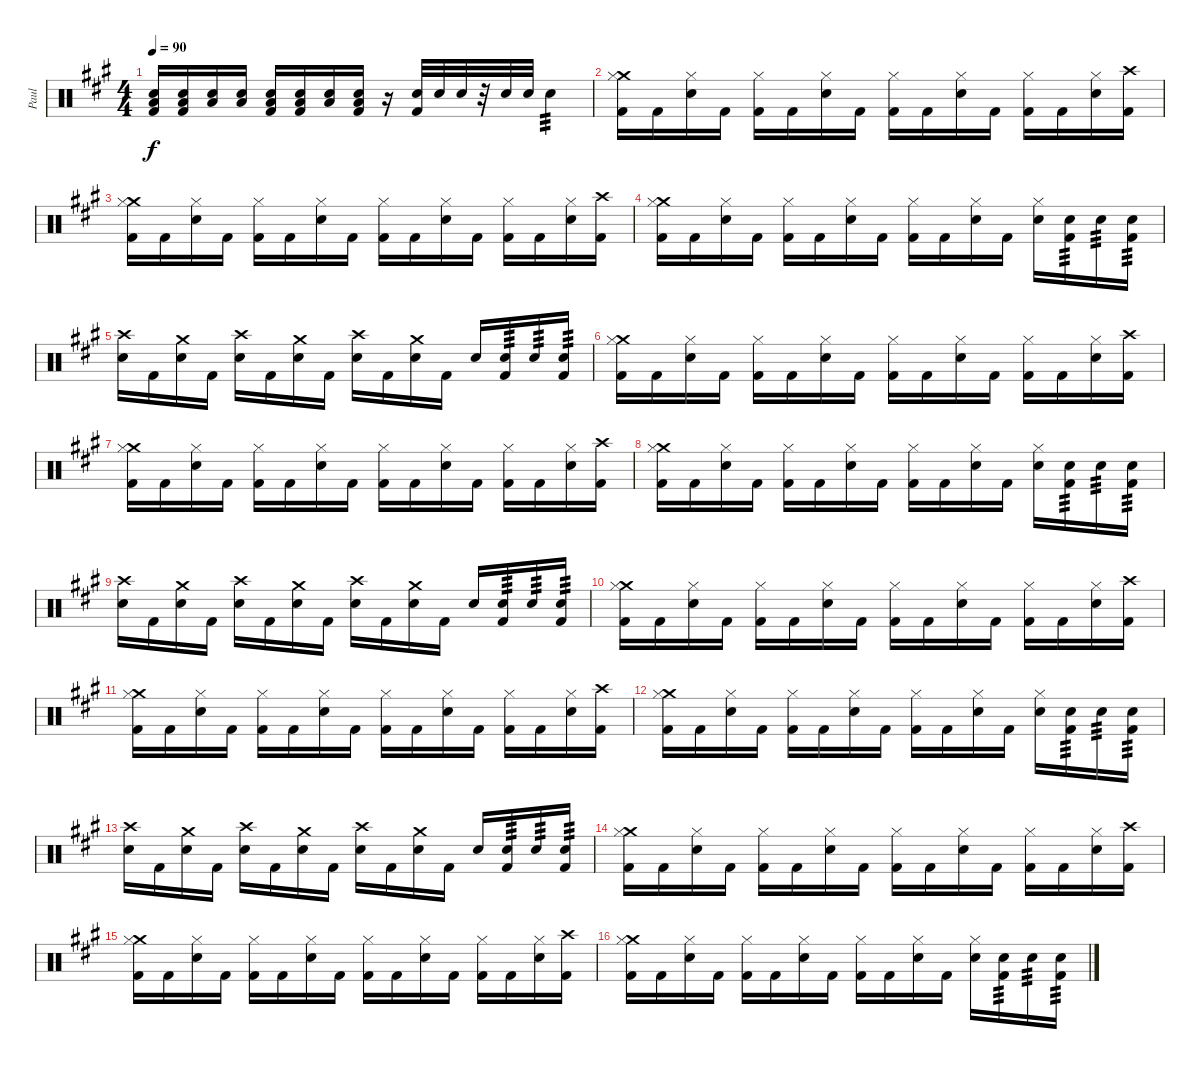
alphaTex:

\track ("Paul" "Paul") {instrument percussion}
\staff {score}
\articulation defaults
\ts (4 4)
\tempo 90
\clef neutral
\ks a
("Snare (hit) 2" "Low Floor Tom (hit)" "Kick (hit) 2").16{dy f} ("Snare (hit) 2" "Low Floor Tom (hit)" "Kick (hit) 2").16 ("Snare (hit) 2" "Low Floor Tom (hit)").16 ("Snare (hit) 2" "Low Floor Tom (hit)").16 ("Snare (hit) 2" "Low Floor Tom (hit)" "Kick (hit) 2").16 ("Snare (hit) 2" "Low Floor Tom (hit)" "Kick (hit) 2").16 ("Snare (hit) 2" "Low Floor Tom (hit)").16 ("Snare (hit) 2" "Low Floor Tom (hit)" "Kick (hit) 2").16 r.16 ("Snare (hit) 2" "Kick (hit) 2").32 "Snare (hit) 2".32 "Snare (hit) 2".32 r.32 "Snare (hit) 2".32 "Snare (hit) 2".32 "Snare (hit) 2".4{tp 3} |
("Crash medium (hit)" "Hi-Hat (closed)" "Kick (hit) 2").16 "Kick (hit) 2".16 ("Hi-Hat (closed)" "Snare (hit) 2").16 "Kick (hit) 2".16 ("Hi-Hat (closed)" "Kick (hit) 2").16 "Kick (hit) 2".16 ("Hi-Hat (closed)" "Snare (hit) 2").16 "Kick (hit) 2".16 ("Hi-Hat (closed)" "Kick (hit) 2").16 "Kick (hit) 2".16 ("Hi-Hat (closed)" "Snare (hit) 2").16 "Kick (hit) 2".16 ("Hi-Hat (closed)" "Kick (hit) 2").16 "Kick (hit) 2".16 ("Hi-Hat (closed)" "Snare (hit) 2").16 ("Crash high (hit)" "Kick (hit) 2").16 |
("Crash medium (hit)" "Hi-Hat (closed)" "Kick (hit) 2").16 "Kick (hit) 2".16 ("Hi-Hat (closed)" "Snare (hit) 2").16 "Kick (hit) 2".16 ("Hi-Hat (closed)" "Kick (hit) 2").16 "Kick (hit) 2".16 ("Hi-Hat (closed)" "Snare (hit) 2").16 "Kick (hit) 2".16 ("Hi-Hat (closed)" "Kick (hit) 2").16 "Kick (hit) 2".16 ("Hi-Hat (closed)" "Snare (hit) 2").16 "Kick (hit) 2".16 ("Hi-Hat (closed)" "Kick (hit) 2").16 "Kick (hit) 2".16 ("Hi-Hat (closed)" "Snare (hit) 2").16 ("Crash high (hit)" "Kick (hit) 2").16 |
("Crash medium (hit)" "Hi-Hat (closed)" "Kick (hit) 2").16 "Kick (hit) 2".16 ("Hi-Hat (closed)" "Snare (hit) 2").16 "Kick (hit) 2".16 ("Hi-Hat (closed)" "Kick (hit) 2").16 "Kick (hit) 2".16 ("Hi-Hat (closed)" "Snare (hit) 2").16 "Kick (hit) 2".16 ("Hi-Hat (closed)" "Kick (hit) 2").16 "Kick (hit) 2".16 ("Hi-Hat (closed)" "Snare (hit) 2").16 "Kick (hit) 2".16 ("Hi-Hat (closed)" "Snare (hit) 2").16 ("Snare (hit) 2" "Kick (hit) 2").16{tp 3} "Snare (hit) 2".16{tp 3} ("Snare (hit) 2" "Kick (hit) 2").16{tp 3} |
("Crash high (hit)" "Snare (hit) 2").16 "Kick (hit) 2".16 ("Crash medium (hit)" "Snare (hit) 2").16 "Kick (hit) 2".16 ("Crash high (hit)" "Snare (hit) 2").16 "Kick (hit) 2".16 ("Crash medium (hit)" "Snare (hit) 2").16 "Kick (hit) 2".16 ("Crash high (hit)" "Snare (hit) 2").16 "Kick (hit) 2".16 ("Crash medium (hit)" "Snare (hit) 2").16 "Kick (hit) 2".16 "Snare (hit) 2".16 ("Snare (hit) 2" "Kick (hit) 2").16{tp 3} "Snare (hit) 2".16{tp 3} ("Snare (hit) 2" "Kick (hit) 2").16{tp 3} |
("Crash medium (hit)" "Hi-Hat (closed)" "Kick (hit) 2").16 "Kick (hit) 2".16 ("Hi-Hat (closed)" "Snare (hit) 2").16 "Kick (hit) 2".16 ("Hi-Hat (closed)" "Kick (hit) 2").16 "Kick (hit) 2".16 ("Hi-Hat (closed)" "Snare (hit) 2").16 "Kick (hit) 2".16 ("Hi-Hat (closed)" "Kick (hit) 2").16 "Kick (hit) 2".16 ("Hi-Hat (closed)" "Snare (hit) 2").16 "Kick (hit) 2".16 ("Hi-Hat (closed)" "Kick (hit) 2").16 "Kick (hit) 2".16 ("Hi-Hat (closed)" "Snare (hit) 2").16 ("Crash high (hit)" "Kick (hit) 2").16 |
("Crash medium (hit)" "Hi-Hat (closed)" "Kick (hit) 2").16 "Kick (hit) 2".16 ("Hi-Hat (closed)" "Snare (hit) 2").16 "Kick (hit) 2".16 ("Hi-Hat (closed)" "Kick (hit) 2").16 "Kick (hit) 2".16 ("Hi-Hat (closed)" "Snare (hit) 2").16 "Kick (hit) 2".16 ("Hi-Hat (closed)" "Kick (hit) 2").16 "Kick (hit) 2".16 ("Hi-Hat (closed)" "Snare (hit) 2").16 "Kick (hit) 2".16 ("Hi-Hat (closed)" "Kick (hit) 2").16 "Kick (hit) 2".16 ("Hi-Hat (closed)" "Snare (hit) 2").16 ("Crash high (hit)" "Kick (hit) 2").16 |
("Crash medium (hit)" "Hi-Hat (closed)" "Kick (hit) 2").16 "Kick (hit) 2".16 ("Hi-Hat (closed)" "Snare (hit) 2").16 "Kick (hit) 2".16 ("Hi-Hat (closed)" "Kick (hit) 2").16 "Kick (hit) 2".16 ("Hi-Hat (closed)" "Snare (hit) 2").16 "Kick (hit) 2".16 ("Hi-Hat (closed)" "Kick (hit) 2").16 "Kick (hit) 2".16 ("Hi-Hat (closed)" "Snare (hit) 2").16 "Kick (hit) 2".16 ("Hi-Hat (closed)" "Snare (hit) 2").16 ("Snare (hit) 2" "Kick (hit) 2").16{tp 3} "Snare (hit) 2".16{tp 3} ("Snare (hit) 2" "Kick (hit) 2").16{tp 3} |
("Crash high (hit)" "Snare (hit) 2").16 "Kick (hit) 2".16 ("Crash medium (hit)" "Snare (hit) 2").16 "Kick (hit) 2".16 ("Crash high (hit)" "Snare (hit) 2").16 "Kick (hit) 2".16 ("Crash medium (hit)" "Snare (hit) 2").16 "Kick (hit) 2".16 ("Crash high (hit)" "Snare (hit) 2").16 "Kick (hit) 2".16 ("Crash medium (hit)" "Snare (hit) 2").16 "Kick (hit) 2".16 "Snare (hit) 2".16 ("Snare (hit) 2" "Kick (hit) 2").16{tp 3} "Snare (hit) 2".16{tp 3} ("Snare (hit) 2" "Kick (hit) 2").16{tp 3} |
("Crash medium (hit)" "Hi-Hat (closed)" "Kick (hit) 2").16 "Kick (hit) 2".16 ("Hi-Hat (closed)" "Snare (hit) 2").16 "Kick (hit) 2".16 ("Hi-Hat (closed)" "Kick (hit) 2").16 "Kick (hit) 2".16 ("Hi-Hat (closed)" "Snare (hit) 2").16 "Kick (hit) 2".16 ("Hi-Hat (closed)" "Kick (hit) 2").16 "Kick (hit) 2".16 ("Hi-Hat (closed)" "Snare (hit) 2").16 "Kick (hit) 2".16 ("Hi-Hat (closed)" "Kick (hit) 2").16 "Kick (hit) 2".16 ("Hi-Hat (closed)" "Snare (hit) 2").16 ("Crash high (hit)" "Kick (hit) 2").16 |
("Crash medium (hit)" "Hi-Hat (closed)" "Kick (hit) 2").16 "Kick (hit) 2".16 ("Hi-Hat (closed)" "Snare (hit) 2").16 "Kick (hit) 2".16 ("Hi-Hat (closed)" "Kick (hit) 2").16 "Kick (hit) 2".16 ("Hi-Hat (closed)" "Snare (hit) 2").16 "Kick (hit) 2".16 ("Hi-Hat (closed)" "Kick (hit) 2").16 "Kick (hit) 2".16 ("Hi-Hat (closed)" "Snare (hit) 2").16 "Kick (hit) 2".16 ("Hi-Hat (closed)" "Kick (hit) 2").16 "Kick (hit) 2".16 ("Hi-Hat (closed)" "Snare (hit) 2").16 ("Crash high (hit)" "Kick (hit) 2").16 |
("Crash medium (hit)" "Hi-Hat (closed)" "Kick (hit) 2").16 "Kick (hit) 2".16 ("Hi-Hat (closed)" "Snare (hit) 2").16 "Kick (hit) 2".16 ("Hi-Hat (closed)" "Kick (hit) 2").16 "Kick (hit) 2".16 ("Hi-Hat (closed)" "Snare (hit) 2").16 "Kick (hit) 2".16 ("Hi-Hat (closed)" "Kick (hit) 2").16 "Kick (hit) 2".16 ("Hi-Hat (closed)" "Snare (hit) 2").16 "Kick (hit) 2".16 ("Hi-Hat (closed)" "Snare (hit) 2").16 ("Snare (hit) 2" "Kick (hit) 2").16{tp 3} "Snare (hit) 2".16{tp 3} ("Snare (hit) 2" "Kick (hit) 2").16{tp 3} |
("Crash high (hit)" "Snare (hit) 2").16 "Kick (hit) 2".16 ("Crash medium (hit)" "Snare (hit) 2").16 "Kick (hit) 2".16 ("Crash high (hit)" "Snare (hit) 2").16 "Kick (hit) 2".16 ("Crash medium (hit)" "Snare (hit) 2").16 "Kick (hit) 2".16 ("Crash high (hit)" "Snare (hit) 2").16 "Kick (hit) 2".16 ("Crash medium (hit)" "Snare (hit) 2").16 "Kick (hit) 2".16 "Snare (hit) 2".16 ("Snare (hit) 2" "Kick (hit) 2").16{tp 3} "Snare (hit) 2".16{tp 3} ("Snare (hit) 2" "Kick (hit) 2").16{tp 3} |
("Crash medium (hit)" "Hi-Hat (closed)" "Kick (hit) 2").16 "Kick (hit) 2".16 ("Hi-Hat (closed)" "Snare (hit) 2").16 "Kick (hit) 2".16 ("Hi-Hat (closed)" "Kick (hit) 2").16 "Kick (hit) 2".16 ("Hi-Hat (closed)" "Snare (hit) 2").16 "Kick (hit) 2".16 ("Hi-Hat (closed)" "Kick (hit) 2").16 "Kick (hit) 2".16 ("Hi-Hat (closed)" "Snare (hit) 2").16 "Kick (hit) 2".16 ("Hi-Hat (closed)" "Kick (hit) 2").16 "Kick (hit) 2".16 ("Hi-Hat (closed)" "Snare (hit) 2").16 ("Crash high (hit)" "Kick (hit) 2").16 |
("Crash medium (hit)" "Hi-Hat (closed)" "Kick (hit) 2").16 "Kick (hit) 2".16 ("Hi-Hat (closed)" "Snare (hit) 2").16 "Kick (hit) 2".16 ("Hi-Hat (closed)" "Kick (hit) 2").16 "Kick (hit) 2".16 ("Hi-Hat (closed)" "Snare (hit) 2").16 "Kick (hit) 2".16 ("Hi-Hat (closed)" "Kick (hit) 2").16 "Kick (hit) 2".16 ("Hi-Hat (closed)" "Snare (hit) 2").16 "Kick (hit) 2".16 ("Hi-Hat (closed)" "Kick (hit) 2").16 "Kick (hit) 2".16 ("Hi-Hat (closed)" "Snare (hit) 2").16 ("Crash high (hit)" "Kick (hit) 2").16 |
("Crash medium (hit)" "Hi-Hat (closed)" "Kick (hit) 2").16 "Kick (hit) 2".16 ("Hi-Hat (closed)" "Snare (hit) 2").16 "Kick (hit) 2".16 ("Hi-Hat (closed)" "Kick (hit) 2").16 "Kick (hit) 2".16 ("Hi-Hat (closed)" "Snare (hit) 2").16 "Kick (hit) 2".16 ("Hi-Hat (closed)" "Kick (hit) 2").16 "Kick (hit) 2".16 ("Hi-Hat (closed)" "Snare (hit) 2").16 "Kick (hit) 2".16 ("Hi-Hat (closed)" "Snare (hit) 2").16 ("Snare (hit) 2" "Kick (hit) 2").16{tp 3} "Snare (hit) 2".16{tp 3} ("Snare (hit) 2" "Kick (hit) 2").16{tp 3}
